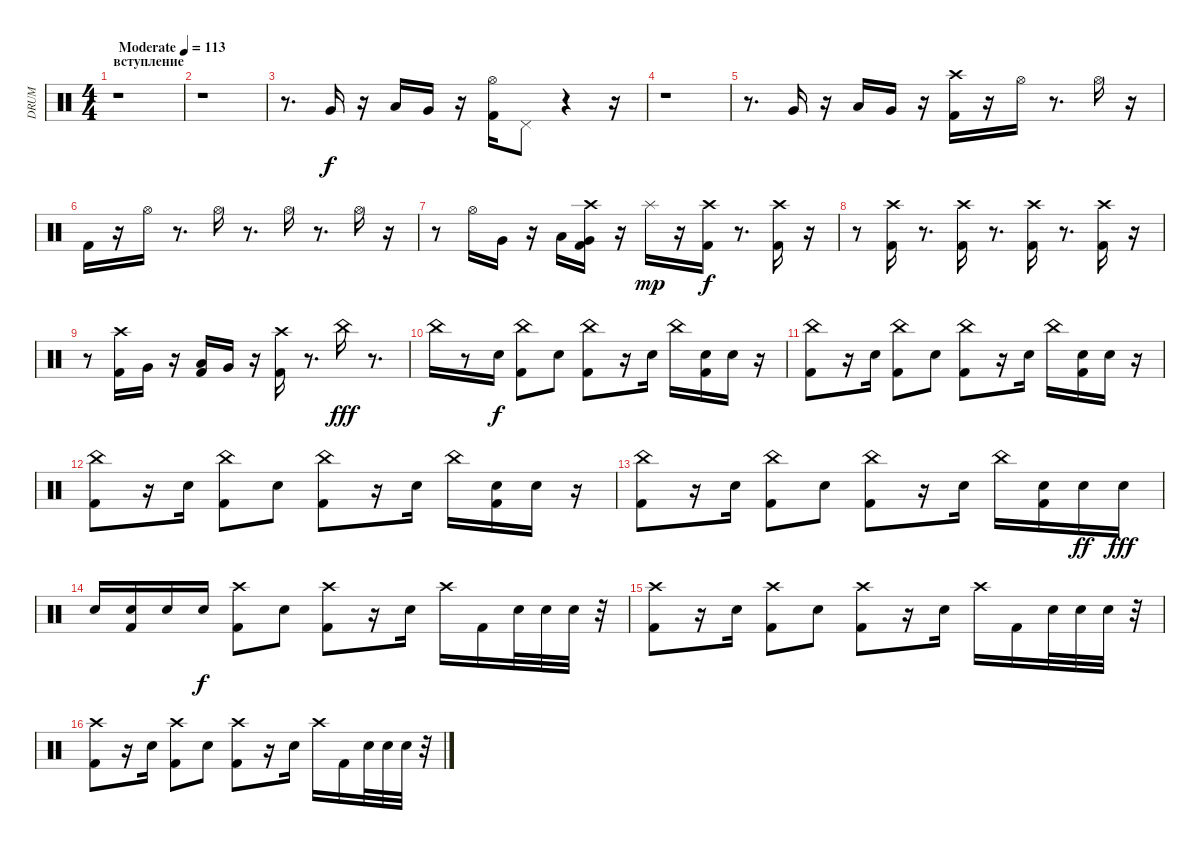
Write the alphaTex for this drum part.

\track ("DRUM" "DRUM") {instrument percussion}
\staff {score}
\articulation defaults
\ts (4 4)
\section ("" "вступление")
\tempo (113 "Moderate")
\clef neutral
\ks c
r.1{dy f} |
r.1 |
r.8{d} "Very Low Tom (hit)".16 r.16 "Low Floor Tom (hit)".16 "Very Low Tom (hit)".16 r.16 ("Hi-Hat (open)" "Kick (hit) 2").16 "Pedal Hi-Hat (hit)".8 r.4 r.16 |
r.1 |
r.8{d} "Very Low Tom (hit)".16 r.16 "Low Floor Tom (hit)".16 "Very Low Tom (hit)".16 r.16 ("Crash high (hit)" "Kick (hit) 2").16 r.16 "Hi-Hat (open)".16 r.8{d} "Hi-Hat (open)".16 r.16 |
"Kick (hit) 2".16 r.16 "Hi-Hat (open)".16 r.8{d} "Hi-Hat (open)".16 r.8{d} "Hi-Hat (open)".16 r.8{d} "Hi-Hat (open)".16 r.16 |
r.8 "Hi-Hat (open)".16 "Very Low Tom (hit)".16 r.16 "Low Floor Tom (hit)".16 ("Crash high (hit)" "Kick (hit) 2" "Very Low Tom (hit)").16 r.16 "Splash (hit)".16{dy mp} r.16 ("Crash high (hit)" "Kick (hit) 2").16{dy f} r.8{d} ("Kick (hit) 2" "Crash high (hit)").16 r.16 |
r.8 ("Crash high (hit)" "Kick (hit) 2").16 r.8{d} ("Kick (hit) 2" "Crash high (hit)").16 r.8{d} ("Kick (hit) 2" "Crash high (hit)").16 r.8{d} ("Kick (hit) 2" "Crash high (hit)").16 r.16 |
r.8 ("Crash high (hit)" "Kick (hit) 2").16 "Very Low Tom (hit)".16 r.16 ("Low Floor Tom (hit)" "Kick (hit) 2").16 "Very Low Tom (hit)".16 r.16 ("Kick (hit) 2" "Crash high (hit)").16 r.8{d} "China (hit)".16{dy fff} r.8{d} |
"China (hit)".16 r.8 "Electric Snare (hit)".16{dy f} ("Kick (hit) 2" "China (hit)").8 "Electric Snare (hit)".8 ("Kick (hit) 2" "China (hit)").8 r.16 "Electric Snare (hit)".16 "China (hit)".16 ("Snare (hit) 2" "Kick (hit) 2").16 "Electric Snare (hit)".16 r.16 |
("Kick (hit) 2" "China (hit)").8 r.16 "Electric Snare (hit)".16 ("Kick (hit) 2" "China (hit)").8 "Electric Snare (hit)".8 ("Kick (hit) 2" "China (hit)").8 r.16 "Electric Snare (hit)".16 "China (hit)".16 ("Snare (hit) 2" "Kick (hit) 2").16 "Electric Snare (hit)".16 r.16 |
("Kick (hit) 2" "China (hit)").8 r.16 "Electric Snare (hit)".16 ("Kick (hit) 2" "China (hit)").8 "Electric Snare (hit)".8 ("Kick (hit) 2" "China (hit)").8 r.16 "Electric Snare (hit)".16 "China (hit)".16 ("Snare (hit) 2" "Kick (hit) 2").16 "Electric Snare (hit)".16 r.16 |
("Kick (hit) 2" "China (hit)").8 r.16 "Electric Snare (hit)".16 ("Kick (hit) 2" "China (hit)").8 "Electric Snare (hit)".8 ("Kick (hit) 2" "China (hit)").8 r.16 "Electric Snare (hit)".16 "China (hit)".16 ("Snare (hit) 2" "Kick (hit) 2").16 "Electric Snare (hit)".16{dy ff} "Electric Snare (hit)".16{dy fff} |
"Electric Snare (hit)".16 ("Electric Snare (hit)" "Kick (hit) 2").16 "Electric Snare (hit)".16 "Electric Snare (hit)".16{dy f} ("Kick (hit) 2" "Crash high (hit)").8 "Electric Snare (hit)".8 ("Kick (hit) 2" "Crash high (hit)").8 r.16 "Electric Snare (hit)".16 "Crash high (hit)".16 "Kick (hit) 2".16 "Electric Snare (hit)".32 "Electric Snare (hit)".32 "Electric Snare (hit)".32 r.32 |
("Kick (hit) 2" "Crash high (hit)").8 r.16 "Electric Snare (hit)".16 ("Kick (hit) 2" "Crash high (hit)").8 "Electric Snare (hit)".8 ("Kick (hit) 2" "Crash high (hit)").8 r.16 "Electric Snare (hit)".16 "Crash high (hit)".16 "Kick (hit) 2".16 "Electric Snare (hit)".32 "Electric Snare (hit)".32 "Electric Snare (hit)".32 r.32 |
("Kick (hit) 2" "Crash high (hit)").8 r.16 "Electric Snare (hit)".16 ("Kick (hit) 2" "Crash high (hit)").8 "Electric Snare (hit)".8 ("Kick (hit) 2" "Crash high (hit)").8 r.16 "Electric Snare (hit)".16 "Crash high (hit)".16 "Kick (hit) 2".16 "Electric Snare (hit)".32 "Electric Snare (hit)".32 "Electric Snare (hit)".32 r.32
